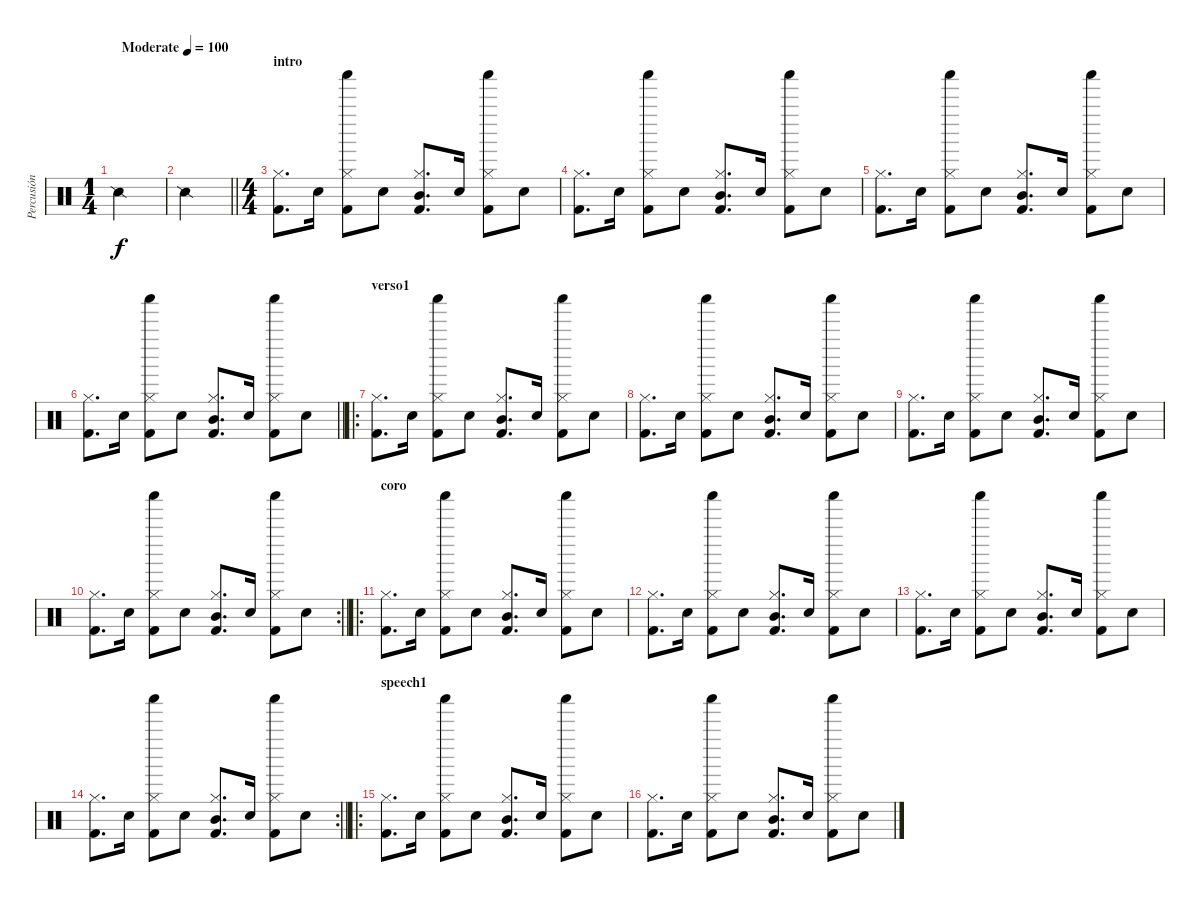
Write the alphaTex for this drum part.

\track ("Percusión" "Percusión") {instrument percussion}
\staff {score}
\articulation defaults
\ts (1 4)
\tempo (100 "Moderate")
\clef neutral
\ks c "Snare (side stick) 2".4{dy f}
|
\barLineRight lightlight "Snare (side stick) 2".4
|
\ts (4 4)
\section ("" "intro")
("Kick (hit) 2" "Hi-Hat (closed)").8{d} "Electric Snare (hit)".16 ("Kick (hit) 2" "Hi-Hat (closed)" "Shaker (hit)").8 "Electric Snare (hit)".8 ("Kick (hit) 2" "Mid Tom (hit)" "Hi-Hat (closed)").8{d} "Electric Snare (hit)".16 ("Kick (hit) 2" "Hi-Hat (closed)" "Shaker (hit)").8 "Electric Snare (hit)".8 |
("Kick (hit) 2" "Hi-Hat (closed)").8{d} "Electric Snare (hit)".16 ("Kick (hit) 2" "Hi-Hat (closed)" "Shaker (hit)").8 "Electric Snare (hit)".8 ("Kick (hit) 2" "Mid Tom (hit)" "Hi-Hat (closed)").8{d} "Electric Snare (hit)".16 ("Kick (hit) 2" "Hi-Hat (closed)" "Shaker (hit)").8 "Electric Snare (hit)".8 |
("Kick (hit) 2" "Hi-Hat (closed)").8{d} "Electric Snare (hit)".16 ("Kick (hit) 2" "Hi-Hat (closed)" "Shaker (hit)").8 "Electric Snare (hit)".8 ("Kick (hit) 2" "Mid Tom (hit)" "Hi-Hat (closed)").8{d} "Electric Snare (hit)".16 ("Kick (hit) 2" "Hi-Hat (closed)" "Shaker (hit)").8 "Electric Snare (hit)".8 |
\barLineRight lightlight
("Kick (hit) 2" "Hi-Hat (closed)").8{d} "Electric Snare (hit)".16 ("Kick (hit) 2" "Hi-Hat (closed)" "Shaker (hit)").8 "Electric Snare (hit)".8 ("Kick (hit) 2" "Mid Tom (hit)" "Hi-Hat (closed)").8{d} "Electric Snare (hit)".16 ("Kick (hit) 2" "Hi-Hat (closed)" "Shaker (hit)").8 "Electric Snare (hit)".8 |
\ro
\section ("" "verso1")
("Kick (hit) 2" "Hi-Hat (closed)").8{d} "Electric Snare (hit)".16 ("Kick (hit) 2" "Hi-Hat (closed)" "Shaker (hit)").8 "Electric Snare (hit)".8 ("Kick (hit) 2" "Mid Tom (hit)" "Hi-Hat (closed)").8{d} "Electric Snare (hit)".16 ("Kick (hit) 2" "Hi-Hat (closed)" "Shaker (hit)").8 "Electric Snare (hit)".8 |
("Kick (hit) 2" "Hi-Hat (closed)").8{d} "Electric Snare (hit)".16 ("Kick (hit) 2" "Hi-Hat (closed)" "Shaker (hit)").8 "Electric Snare (hit)".8 ("Kick (hit) 2" "Mid Tom (hit)" "Hi-Hat (closed)").8{d} "Electric Snare (hit)".16 ("Kick (hit) 2" "Hi-Hat (closed)" "Shaker (hit)").8 "Electric Snare (hit)".8 |
("Kick (hit) 2" "Hi-Hat (closed)").8{d} "Electric Snare (hit)".16 ("Kick (hit) 2" "Hi-Hat (closed)" "Shaker (hit)").8 "Electric Snare (hit)".8 ("Kick (hit) 2" "Mid Tom (hit)" "Hi-Hat (closed)").8{d} "Electric Snare (hit)".16 ("Kick (hit) 2" "Hi-Hat (closed)" "Shaker (hit)").8 "Electric Snare (hit)".8 |
\rc 2
\barLineRight lightlight
("Kick (hit) 2" "Hi-Hat (closed)").8{d} "Electric Snare (hit)".16 ("Kick (hit) 2" "Hi-Hat (closed)" "Shaker (hit)").8 "Electric Snare (hit)".8 ("Kick (hit) 2" "Mid Tom (hit)" "Hi-Hat (closed)").8{d} "Electric Snare (hit)".16 ("Kick (hit) 2" "Hi-Hat (closed)" "Shaker (hit)").8 "Electric Snare (hit)".8 |
\ro
\section ("" "coro")
("Kick (hit) 2" "Hi-Hat (closed)").8{d} "Electric Snare (hit)".16 ("Kick (hit) 2" "Hi-Hat (closed)" "Shaker (hit)").8 "Electric Snare (hit)".8 ("Kick (hit) 2" "Mid Tom (hit)" "Hi-Hat (closed)").8{d} "Electric Snare (hit)".16 ("Kick (hit) 2" "Hi-Hat (closed)" "Shaker (hit)").8 "Electric Snare (hit)".8 |
("Kick (hit) 2" "Hi-Hat (closed)").8{d} "Electric Snare (hit)".16 ("Kick (hit) 2" "Hi-Hat (closed)" "Shaker (hit)").8 "Electric Snare (hit)".8 ("Kick (hit) 2" "Mid Tom (hit)" "Hi-Hat (closed)").8{d} "Electric Snare (hit)".16 ("Kick (hit) 2" "Hi-Hat (closed)" "Shaker (hit)").8 "Electric Snare (hit)".8 |
("Kick (hit) 2" "Hi-Hat (closed)").8{d} "Electric Snare (hit)".16 ("Kick (hit) 2" "Hi-Hat (closed)" "Shaker (hit)").8 "Electric Snare (hit)".8 ("Kick (hit) 2" "Mid Tom (hit)" "Hi-Hat (closed)").8{d} "Electric Snare (hit)".16 ("Kick (hit) 2" "Hi-Hat (closed)" "Shaker (hit)").8 "Electric Snare (hit)".8 |
\rc 2
\barLineRight lightlight
("Kick (hit) 2" "Hi-Hat (closed)").8{d} "Electric Snare (hit)".16 ("Kick (hit) 2" "Hi-Hat (closed)" "Shaker (hit)").8 "Electric Snare (hit)".8 ("Kick (hit) 2" "Mid Tom (hit)" "Hi-Hat (closed)").8{d} "Electric Snare (hit)".16 ("Kick (hit) 2" "Hi-Hat (closed)" "Shaker (hit)").8 "Electric Snare (hit)".8 |
\ro
\section ("" "speech1")
("Kick (hit) 2" "Hi-Hat (closed)").8{d} "Electric Snare (hit)".16 ("Kick (hit) 2" "Hi-Hat (closed)" "Shaker (hit)").8 "Electric Snare (hit)".8 ("Kick (hit) 2" "Mid Tom (hit)" "Hi-Hat (closed)").8{d} "Electric Snare (hit)".16 ("Kick (hit) 2" "Hi-Hat (closed)" "Shaker (hit)").8 "Electric Snare (hit)".8 |
("Kick (hit) 2" "Hi-Hat (closed)").8{d} "Electric Snare (hit)".16 ("Kick (hit) 2" "Hi-Hat (closed)" "Shaker (hit)").8 "Electric Snare (hit)".8 ("Kick (hit) 2" "Mid Tom (hit)" "Hi-Hat (closed)").8{d} "Electric Snare (hit)".16 ("Kick (hit) 2" "Hi-Hat (closed)" "Shaker (hit)").8 "Electric Snare (hit)".8
